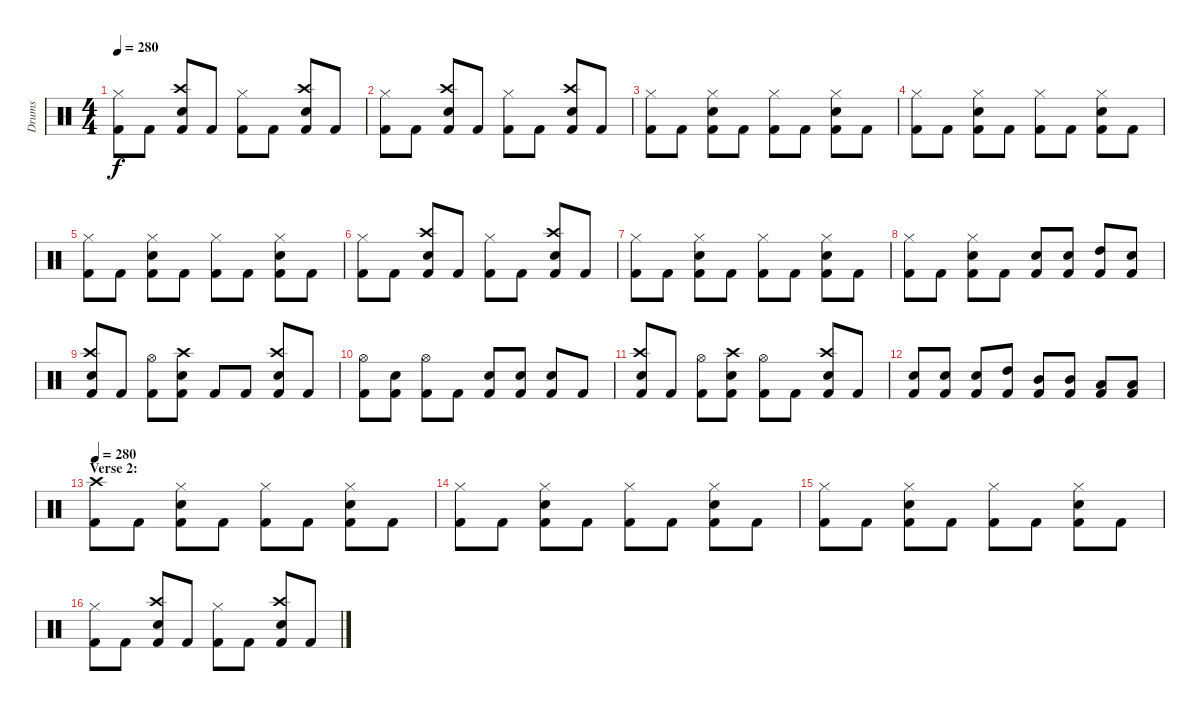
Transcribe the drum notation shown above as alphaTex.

\track ("Drums" "Drums") {instrument percussion}
\staff {score}
\articulation defaults
\ts (4 4)
\tempo 280
\clef neutral
\ks c
("Hi-Hat (closed)" "Kick (hit) 2").8{dy f} "Kick (hit) 2".8 ("Crash high (hit)" "Snare (hit) 2" "Kick (hit) 2").8 "Kick (hit) 2".8 ("Hi-Hat (closed)" "Kick (hit) 2").8 "Kick (hit) 2".8 ("Crash high (hit)" "Snare (hit) 2" "Kick (hit) 2").8 "Kick (hit) 2".8 |
("Hi-Hat (closed)" "Kick (hit) 2").8 "Kick (hit) 2".8 ("Crash high (hit)" "Snare (hit) 2" "Kick (hit) 2").8 "Kick (hit) 2".8 ("Hi-Hat (closed)" "Kick (hit) 2").8 "Kick (hit) 2".8 ("Crash high (hit)" "Snare (hit) 2" "Kick (hit) 2").8 "Kick (hit) 2".8 |
("Hi-Hat (closed)" "Kick (hit) 2").8 "Kick (hit) 2".8 ("Hi-Hat (closed)" "Snare (hit) 2" "Kick (hit) 2").8 "Kick (hit) 2".8 ("Hi-Hat (closed)" "Kick (hit) 2").8 "Kick (hit) 2".8 ("Hi-Hat (closed)" "Snare (hit) 2" "Kick (hit) 2").8 "Kick (hit) 2".8 |
("Hi-Hat (closed)" "Kick (hit) 2").8 "Kick (hit) 2".8 ("Hi-Hat (closed)" "Snare (hit) 2" "Kick (hit) 2").8 "Kick (hit) 2".8 ("Hi-Hat (closed)" "Kick (hit) 2").8 "Kick (hit) 2".8 ("Hi-Hat (closed)" "Snare (hit) 2" "Kick (hit) 2").8 "Kick (hit) 2".8 |
("Hi-Hat (closed)" "Kick (hit) 2").8 "Kick (hit) 2".8 ("Hi-Hat (closed)" "Snare (hit) 2" "Kick (hit) 2").8 "Kick (hit) 2".8 ("Hi-Hat (closed)" "Kick (hit) 2").8 "Kick (hit) 2".8 ("Hi-Hat (closed)" "Snare (hit) 2" "Kick (hit) 2").8 "Kick (hit) 2".8 |
("Hi-Hat (closed)" "Kick (hit) 2").8 "Kick (hit) 2".8 ("Crash high (hit)" "Snare (hit) 2" "Kick (hit) 2").8 "Kick (hit) 2".8 ("Hi-Hat (closed)" "Kick (hit) 2").8 "Kick (hit) 2".8 ("Crash high (hit)" "Snare (hit) 2" "Kick (hit) 2").8 "Kick (hit) 2".8 |
("Hi-Hat (closed)" "Kick (hit) 2").8 "Kick (hit) 2".8 ("Hi-Hat (closed)" "Snare (hit) 2" "Kick (hit) 2").8 "Kick (hit) 2".8 ("Hi-Hat (closed)" "Kick (hit) 2").8 "Kick (hit) 2".8 ("Hi-Hat (closed)" "Snare (hit) 2" "Kick (hit) 2").8 "Kick (hit) 2".8 |
("Hi-Hat (closed)" "Kick (hit) 2").8 "Kick (hit) 2".8 ("Hi-Hat (closed)" "Snare (hit) 2" "Kick (hit) 2").8 "Kick (hit) 2".8 ("Snare (hit) 2" "Kick (hit) 2").8 ("Snare (hit) 2" "Kick (hit) 2").8 ("High Tom (hit)" "Kick (hit) 2").8 ("Snare (hit) 2" "Kick (hit) 2").8 |
("Crash high (hit)" "Snare (hit) 2" "Kick (hit) 2").8 "Kick (hit) 2".8 ("Hi-Hat (open)" "Kick (hit) 2").8 ("Crash high (hit)" "Snare (hit) 2" "Kick (hit) 2").8 "Kick (hit) 2".8 "Kick (hit) 2".8 ("Crash high (hit)" "Snare (hit) 2" "Kick (hit) 2").8 "Kick (hit) 2".8 |
("Hi-Hat (open)" "Kick (hit) 2").8 ("Snare (hit) 2" "Kick (hit) 2").8 ("Hi-Hat (open)" "Kick (hit) 2").8 "Kick (hit) 2".8 ("Snare (hit) 2" "Kick (hit) 2").8 ("Snare (hit) 2" "Kick (hit) 2").8 ("Snare (hit) 2" "Kick (hit) 2").8 "Kick (hit) 2".8 |
("Crash high (hit)" "Snare (hit) 2" "Kick (hit) 2").8 "Kick (hit) 2".8 ("Hi-Hat (open)" "Kick (hit) 2").8 ("Crash high (hit)" "Snare (hit) 2" "Kick (hit) 2").8 ("Hi-Hat (open)" "Kick (hit) 2").8 "Kick (hit) 2".8 ("Crash high (hit)" "Snare (hit) 2" "Kick (hit) 2").8 "Kick (hit) 2".8 |
("Snare (hit) 2" "Kick (hit) 2").8 ("Snare (hit) 2" "Kick (hit) 2").8 ("Snare (hit) 2" "Kick (hit) 2").8 ("High Tom (hit)" "Kick (hit) 2").8 ("Mid Tom (hit)" "Kick (hit) 2").8 ("Mid Tom (hit)" "Kick (hit) 2").8 ("Low Tom (hit)" "Kick (hit) 2").8 ("Low Tom (hit)" "Kick (hit) 2").8 |
\section ("" "Verse 2:")
\tempo 280
("Crash high (hit)" "Kick (hit) 2").8 "Kick (hit) 2".8 ("Hi-Hat (closed)" "Snare (hit) 2" "Kick (hit) 2").8 "Kick (hit) 2".8 ("Hi-Hat (closed)" "Kick (hit) 2").8 "Kick (hit) 2".8 ("Hi-Hat (closed)" "Snare (hit) 2" "Kick (hit) 2").8 "Kick (hit) 2".8 |
("Hi-Hat (closed)" "Kick (hit) 2").8 "Kick (hit) 2".8 ("Hi-Hat (closed)" "Snare (hit) 2" "Kick (hit) 2").8 "Kick (hit) 2".8 ("Hi-Hat (closed)" "Kick (hit) 2").8 "Kick (hit) 2".8 ("Hi-Hat (closed)" "Snare (hit) 2" "Kick (hit) 2").8 "Kick (hit) 2".8 |
("Hi-Hat (closed)" "Kick (hit) 2").8 "Kick (hit) 2".8 ("Hi-Hat (closed)" "Snare (hit) 2" "Kick (hit) 2").8 "Kick (hit) 2".8 ("Hi-Hat (closed)" "Kick (hit) 2").8 "Kick (hit) 2".8 ("Hi-Hat (closed)" "Snare (hit) 2" "Kick (hit) 2").8 "Kick (hit) 2".8 |
("Hi-Hat (closed)" "Kick (hit) 2").8 "Kick (hit) 2".8 ("Crash high (hit)" "Snare (hit) 2" "Kick (hit) 2").8 "Kick (hit) 2".8 ("Hi-Hat (closed)" "Kick (hit) 2").8 "Kick (hit) 2".8 ("Crash high (hit)" "Snare (hit) 2" "Kick (hit) 2").8 "Kick (hit) 2".8
